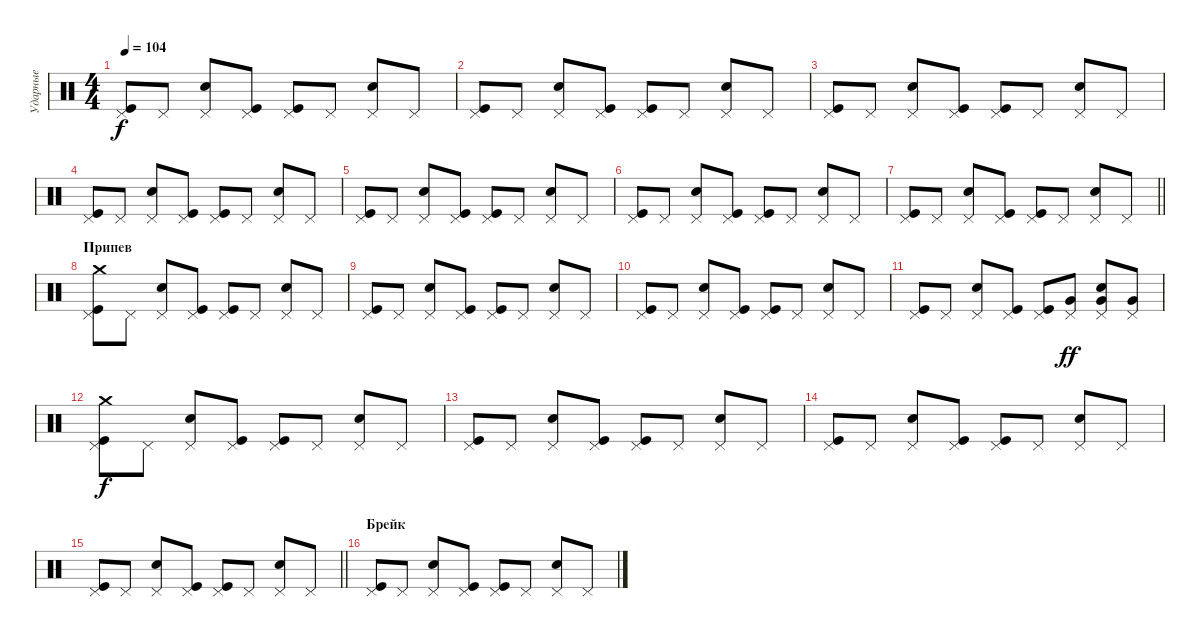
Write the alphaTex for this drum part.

\track ("Ударные" "Ударные") {instrument percussion}
\staff {score}
\articulation defaults
\ts (4 4)
\tempo 104
\clef neutral
\ks c
("Pedal Hi-Hat (hit)" "Kick (hit)").8{dy f} "Pedal Hi-Hat (hit)".8 ("Pedal Hi-Hat (hit)" "Snare (hit) 2").8 ("Pedal Hi-Hat (hit)" "Kick (hit)").8 ("Pedal Hi-Hat (hit)" "Kick (hit)").8 "Pedal Hi-Hat (hit)".8 ("Pedal Hi-Hat (hit)" "Snare (hit) 2").8 "Pedal Hi-Hat (hit)".8 |
("Pedal Hi-Hat (hit)" "Kick (hit)").8 "Pedal Hi-Hat (hit)".8 ("Pedal Hi-Hat (hit)" "Snare (hit) 2").8 ("Pedal Hi-Hat (hit)" "Kick (hit)").8 ("Pedal Hi-Hat (hit)" "Kick (hit)").8 "Pedal Hi-Hat (hit)".8 ("Pedal Hi-Hat (hit)" "Snare (hit) 2").8 "Pedal Hi-Hat (hit)".8 |
("Pedal Hi-Hat (hit)" "Kick (hit)").8 "Pedal Hi-Hat (hit)".8 ("Pedal Hi-Hat (hit)" "Snare (hit) 2").8 ("Pedal Hi-Hat (hit)" "Kick (hit)").8 ("Pedal Hi-Hat (hit)" "Kick (hit)").8 "Pedal Hi-Hat (hit)".8 ("Pedal Hi-Hat (hit)" "Snare (hit) 2").8 "Pedal Hi-Hat (hit)".8 |
("Pedal Hi-Hat (hit)" "Kick (hit)").8 "Pedal Hi-Hat (hit)".8 ("Pedal Hi-Hat (hit)" "Snare (hit) 2").8 ("Pedal Hi-Hat (hit)" "Kick (hit)").8 ("Pedal Hi-Hat (hit)" "Kick (hit)").8 "Pedal Hi-Hat (hit)".8 ("Pedal Hi-Hat (hit)" "Snare (hit) 2").8 "Pedal Hi-Hat (hit)".8 |
("Pedal Hi-Hat (hit)" "Kick (hit)").8 "Pedal Hi-Hat (hit)".8 ("Pedal Hi-Hat (hit)" "Snare (hit) 2").8 ("Pedal Hi-Hat (hit)" "Kick (hit)").8 ("Pedal Hi-Hat (hit)" "Kick (hit)").8 "Pedal Hi-Hat (hit)".8 ("Pedal Hi-Hat (hit)" "Snare (hit) 2").8 "Pedal Hi-Hat (hit)".8 |
("Pedal Hi-Hat (hit)" "Kick (hit)").8 "Pedal Hi-Hat (hit)".8 ("Pedal Hi-Hat (hit)" "Snare (hit) 2").8 ("Pedal Hi-Hat (hit)" "Kick (hit)").8 ("Pedal Hi-Hat (hit)" "Kick (hit)").8 "Pedal Hi-Hat (hit)".8 ("Pedal Hi-Hat (hit)" "Snare (hit) 2").8 "Pedal Hi-Hat (hit)".8 |
\barLineRight lightlight
("Pedal Hi-Hat (hit)" "Kick (hit)").8 "Pedal Hi-Hat (hit)".8 ("Pedal Hi-Hat (hit)" "Snare (hit) 2").8 ("Pedal Hi-Hat (hit)" "Kick (hit)").8 ("Pedal Hi-Hat (hit)" "Kick (hit)").8 "Pedal Hi-Hat (hit)".8 ("Pedal Hi-Hat (hit)" "Snare (hit) 2").8 "Pedal Hi-Hat (hit)".8 |
\section ("" "Припев")
("Pedal Hi-Hat (hit)" "Kick (hit)" "Crash medium (hit)").8 "Pedal Hi-Hat (hit)".8 ("Pedal Hi-Hat (hit)" "Snare (hit) 2").8 ("Pedal Hi-Hat (hit)" "Kick (hit)").8 ("Pedal Hi-Hat (hit)" "Kick (hit)").8 "Pedal Hi-Hat (hit)".8 ("Pedal Hi-Hat (hit)" "Snare (hit) 2").8 "Pedal Hi-Hat (hit)".8 |
("Pedal Hi-Hat (hit)" "Kick (hit)").8 "Pedal Hi-Hat (hit)".8 ("Pedal Hi-Hat (hit)" "Snare (hit) 2").8 ("Pedal Hi-Hat (hit)" "Kick (hit)").8 ("Pedal Hi-Hat (hit)" "Kick (hit)").8 "Pedal Hi-Hat (hit)".8 ("Pedal Hi-Hat (hit)" "Snare (hit) 2").8 "Pedal Hi-Hat (hit)".8 |
("Pedal Hi-Hat (hit)" "Kick (hit)").8 "Pedal Hi-Hat (hit)".8 ("Pedal Hi-Hat (hit)" "Snare (hit) 2").8 ("Pedal Hi-Hat (hit)" "Kick (hit)").8 ("Pedal Hi-Hat (hit)" "Kick (hit)").8 "Pedal Hi-Hat (hit)".8 ("Pedal Hi-Hat (hit)" "Snare (hit) 2").8 "Pedal Hi-Hat (hit)".8 |
("Pedal Hi-Hat (hit)" "Kick (hit)").8 "Pedal Hi-Hat (hit)".8 ("Pedal Hi-Hat (hit)" "Snare (hit) 2").8 ("Pedal Hi-Hat (hit)" "Kick (hit)").8 ("Pedal Hi-Hat (hit)" "Kick (hit)").8 ("Pedal Hi-Hat (hit)" "Very Low Tom (hit)").8{dy ff} ("Pedal Hi-Hat (hit)" "Snare (hit) 2" "Very Low Tom (hit)").8 ("Pedal Hi-Hat (hit)" "Very Low Tom (hit)").8 |
("Pedal Hi-Hat (hit)" "Kick (hit)" "Crash medium (hit)").8{dy f} "Pedal Hi-Hat (hit)".8 ("Pedal Hi-Hat (hit)" "Snare (hit) 2").8 ("Pedal Hi-Hat (hit)" "Kick (hit)").8 ("Pedal Hi-Hat (hit)" "Kick (hit)").8 "Pedal Hi-Hat (hit)".8 ("Pedal Hi-Hat (hit)" "Snare (hit) 2").8 "Pedal Hi-Hat (hit)".8 |
("Pedal Hi-Hat (hit)" "Kick (hit)").8 "Pedal Hi-Hat (hit)".8 ("Pedal Hi-Hat (hit)" "Snare (hit) 2").8 ("Pedal Hi-Hat (hit)" "Kick (hit)").8 ("Pedal Hi-Hat (hit)" "Kick (hit)").8 "Pedal Hi-Hat (hit)".8 ("Pedal Hi-Hat (hit)" "Snare (hit) 2").8 "Pedal Hi-Hat (hit)".8 |
("Pedal Hi-Hat (hit)" "Kick (hit)").8 "Pedal Hi-Hat (hit)".8 ("Pedal Hi-Hat (hit)" "Snare (hit) 2").8 ("Pedal Hi-Hat (hit)" "Kick (hit)").8 ("Pedal Hi-Hat (hit)" "Kick (hit)").8 "Pedal Hi-Hat (hit)".8 ("Pedal Hi-Hat (hit)" "Snare (hit) 2").8 "Pedal Hi-Hat (hit)".8 |
\barLineRight lightlight
("Pedal Hi-Hat (hit)" "Kick (hit)").8 "Pedal Hi-Hat (hit)".8 ("Pedal Hi-Hat (hit)" "Snare (hit) 2").8 ("Pedal Hi-Hat (hit)" "Kick (hit)").8 ("Pedal Hi-Hat (hit)" "Kick (hit)").8 "Pedal Hi-Hat (hit)".8 ("Pedal Hi-Hat (hit)" "Snare (hit) 2").8 "Pedal Hi-Hat (hit)".8 |
\section ("" "Брейк")
("Pedal Hi-Hat (hit)" "Kick (hit)").8 "Pedal Hi-Hat (hit)".8 ("Pedal Hi-Hat (hit)" "Snare (hit) 2").8 ("Pedal Hi-Hat (hit)" "Kick (hit)").8 ("Pedal Hi-Hat (hit)" "Kick (hit)").8 "Pedal Hi-Hat (hit)".8 ("Pedal Hi-Hat (hit)" "Snare (hit) 2").8 "Pedal Hi-Hat (hit)".8
